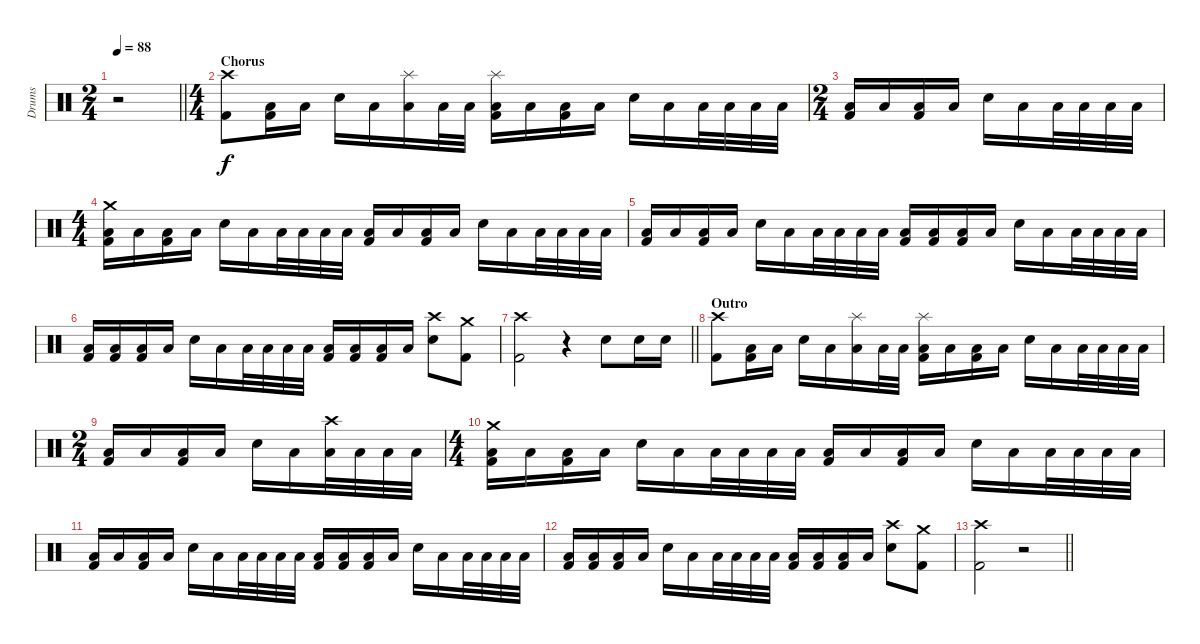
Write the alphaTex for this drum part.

\track ("Drums" "Drums") {instrument percussion}
\staff {score}
\articulation defaults
\ts (2 4)
\tempo 88
\clef neutral
\barLineRight lightlight
\ks c
r.2{dy f} |
\ts (4 4)
\section ("" "Chorus")
("Crash high (hit)" "Kick (hit) 2").8 ("Low Tom (hit)" "Kick (hit) 2").16 "Low Tom (hit)".16 "Snare (hit) 2".16 "Low Tom (hit)".16 ("Splash (hit)" "Low Tom (hit)").16 "Low Tom (hit)".32 "Low Tom (hit)".32 ("Splash (hit)" "Low Tom (hit)" "Kick (hit) 2").16 "Low Tom (hit)".16 ("Low Tom (hit)" "Kick (hit) 2").16 "Low Tom (hit)".16 "Snare (hit) 2".16 "Low Tom (hit)".16 "Low Tom (hit)".32 "Low Tom (hit)".32 "Low Tom (hit)".32 "Low Tom (hit)".32 |
\ts (2 4)
("Low Tom (hit)" "Kick (hit) 2").16 "Low Tom (hit)".16 ("Low Tom (hit)" "Kick (hit) 2").16 "Low Tom (hit)".16 "Snare (hit) 2".16 "Low Tom (hit)".16 "Low Tom (hit)".32 "Low Tom (hit)".32 "Low Tom (hit)".32 "Low Tom (hit)".32 |
\ts (4 4)
("Crash medium (hit)" "Low Tom (hit)" "Kick (hit) 2").16 "Low Tom (hit)".16 ("Low Tom (hit)" "Kick (hit) 2").16 "Low Tom (hit)".16 "Snare (hit) 2".16 "Low Tom (hit)".16 "Low Tom (hit)".32 "Low Tom (hit)".32 "Low Tom (hit)".32 "Low Tom (hit)".32 ("Low Tom (hit)" "Kick (hit) 2").16 "Low Tom (hit)".16 ("Low Tom (hit)" "Kick (hit) 2").16 "Low Tom (hit)".16 "Snare (hit) 2".16 "Low Tom (hit)".16 "Low Tom (hit)".32 "Low Tom (hit)".32 "Low Tom (hit)".32 "Low Tom (hit)".32 |
("Low Tom (hit)" "Kick (hit) 2").16 "Low Tom (hit)".16 ("Low Tom (hit)" "Kick (hit) 2").16 "Low Tom (hit)".16 "Snare (hit) 2".16 "Low Tom (hit)".16 "Low Tom (hit)".32 "Low Tom (hit)".32 "Low Tom (hit)".32 "Low Tom (hit)".32 ("Low Tom (hit)" "Kick (hit) 2").16 ("Low Tom (hit)" "Kick (hit) 2").16 ("Low Tom (hit)" "Kick (hit) 2").16 "Low Tom (hit)".16 "Snare (hit) 2".16 "Low Tom (hit)".16 "Low Tom (hit)".32 "Low Tom (hit)".32 "Low Tom (hit)".32 "Low Tom (hit)".32 |
("Low Tom (hit)" "Kick (hit) 2").16 ("Low Tom (hit)" "Kick (hit) 2").16 ("Low Tom (hit)" "Kick (hit) 2").16 "Low Tom (hit)".16 "Snare (hit) 2".16 "Low Tom (hit)".16 "Low Tom (hit)".32 "Low Tom (hit)".32 "Low Tom (hit)".32 "Low Tom (hit)".32 ("Low Tom (hit)" "Kick (hit) 2").16 ("Low Tom (hit)" "Kick (hit) 2").16 ("Low Tom (hit)" "Kick (hit) 2").16 "Low Tom (hit)".16 ("Crash high (hit)" "Snare (hit) 2").8 ("Crash medium (hit)" "Kick (hit) 2").8 |
\barLineRight lightlight
("Crash high (hit)" "Kick (hit) 2").2 r.4 "Snare (hit) 2".8 "Snare (hit) 2".16 "Snare (hit) 2".16 |
\section ("" "Outro")
("Crash high (hit)" "Kick (hit) 2").8 ("Low Tom (hit)" "Kick (hit) 2").16 "Low Tom (hit)".16 "Snare (hit) 2".16 "Low Tom (hit)".16 ("Splash (hit)" "Low Tom (hit)").16 "Low Tom (hit)".32 "Low Tom (hit)".32 ("Splash (hit)" "Low Tom (hit)" "Kick (hit) 2").16 "Low Tom (hit)".16 ("Low Tom (hit)" "Kick (hit) 2").16 "Low Tom (hit)".16 "Snare (hit) 2".16 "Low Tom (hit)".16 "Low Tom (hit)".32 "Low Tom (hit)".32 "Low Tom (hit)".32 "Low Tom (hit)".32 |
\ts (2 4)
("Low Tom (hit)" "Kick (hit) 2").16 "Low Tom (hit)".16 ("Low Tom (hit)" "Kick (hit) 2").16 "Low Tom (hit)".16 "Snare (hit) 2".16 "Low Tom (hit)".16 ("Crash high (hit)" "Low Tom (hit)").32 "Low Tom (hit)".32 "Low Tom (hit)".32 "Low Tom (hit)".32 |
\ts (4 4)
("Crash medium (hit)" "Low Tom (hit)" "Kick (hit) 2").16 "Low Tom (hit)".16 ("Low Tom (hit)" "Kick (hit) 2").16 "Low Tom (hit)".16 "Snare (hit) 2".16 "Low Tom (hit)".16 "Low Tom (hit)".32 "Low Tom (hit)".32 "Low Tom (hit)".32 "Low Tom (hit)".32 ("Low Tom (hit)" "Kick (hit) 2").16 "Low Tom (hit)".16 ("Low Tom (hit)" "Kick (hit) 2").16 "Low Tom (hit)".16 "Snare (hit) 2".16 "Low Tom (hit)".16 "Low Tom (hit)".32 "Low Tom (hit)".32 "Low Tom (hit)".32 "Low Tom (hit)".32 |
("Low Tom (hit)" "Kick (hit) 2").16 "Low Tom (hit)".16 ("Low Tom (hit)" "Kick (hit) 2").16 "Low Tom (hit)".16 "Snare (hit) 2".16 "Low Tom (hit)".16 "Low Tom (hit)".32 "Low Tom (hit)".32 "Low Tom (hit)".32 "Low Tom (hit)".32 ("Low Tom (hit)" "Kick (hit) 2").16 ("Low Tom (hit)" "Kick (hit) 2").16 ("Low Tom (hit)" "Kick (hit) 2").16 "Low Tom (hit)".16 "Snare (hit) 2".16 "Low Tom (hit)".16 "Low Tom (hit)".32 "Low Tom (hit)".32 "Low Tom (hit)".32 "Low Tom (hit)".32 |
("Low Tom (hit)" "Kick (hit) 2").16 ("Low Tom (hit)" "Kick (hit) 2").16 ("Low Tom (hit)" "Kick (hit) 2").16 "Low Tom (hit)".16 "Snare (hit) 2".16 "Low Tom (hit)".16 "Low Tom (hit)".32 "Low Tom (hit)".32 "Low Tom (hit)".32 "Low Tom (hit)".32 ("Low Tom (hit)" "Kick (hit) 2").16 ("Low Tom (hit)" "Kick (hit) 2").16 ("Low Tom (hit)" "Kick (hit) 2").16 "Low Tom (hit)".16 ("Crash high (hit)" "Snare (hit) 2").8 ("Crash medium (hit)" "Kick (hit) 2").8 |
\barLineRight lightlight
("Crash high (hit)" "Kick (hit) 2").2 r.2
